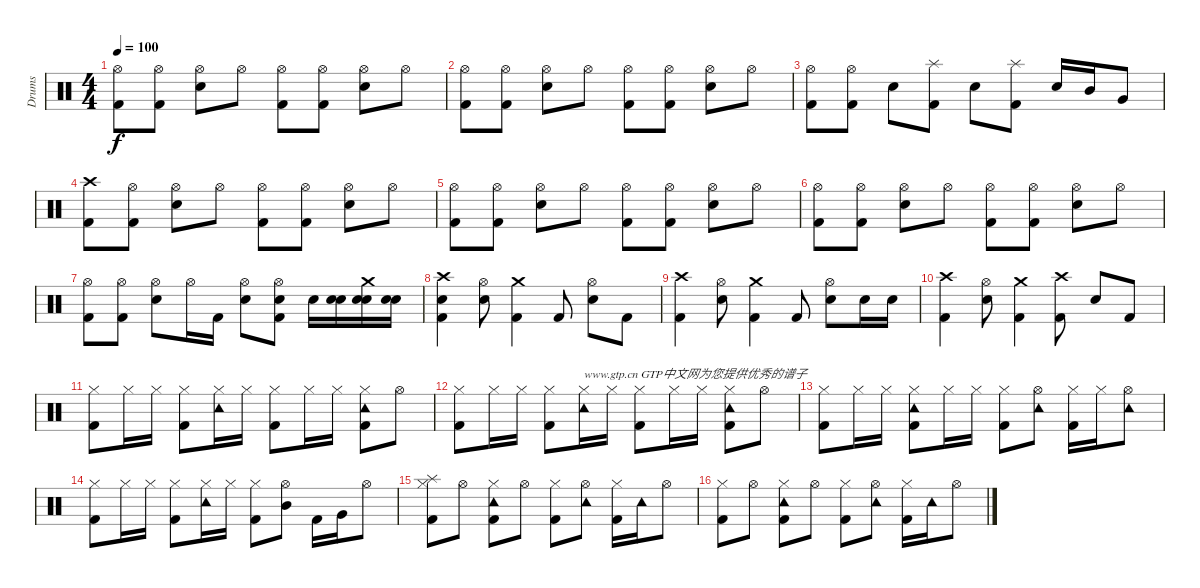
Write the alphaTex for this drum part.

\track ("Drums" "Drums") {instrument percussion}
\staff {score}
\articulation defaults
\ts (4 4)
\tempo 100
\clef neutral
\ks c
("Kick (hit) 2" "Hi-Hat (open)").8{dy f} ("Kick (hit) 2" "Hi-Hat (open)").8 ("Hi-Hat (open)" "Snare (hit) 2").8 "Hi-Hat (open)".8 ("Kick (hit) 2" "Hi-Hat (open)").8 ("Kick (hit) 2" "Hi-Hat (open)").8 ("Hi-Hat (open)" "Snare (hit) 2").8 "Hi-Hat (open)".8 |
("Kick (hit) 2" "Hi-Hat (open)").8 ("Kick (hit) 2" "Hi-Hat (open)").8 ("Hi-Hat (open)" "Snare (hit) 2").8 "Hi-Hat (open)".8 ("Kick (hit) 2" "Hi-Hat (open)").8 ("Kick (hit) 2" "Hi-Hat (open)").8 ("Hi-Hat (open)" "Snare (hit) 2").8 "Hi-Hat (open)".8 |
("Kick (hit) 2" "Hi-Hat (open)").8 ("Kick (hit) 2" "Hi-Hat (open)").8 "Snare (hit) 2".8 ("Kick (hit) 2" "Splash (hit)").8 "Snare (hit) 2".8 ("Kick (hit) 2" "Splash (hit)").8 "Snare (hit) 2".16 "Mid Tom (hit)".16 "Very Low Tom (hit)".8 |
("Kick (hit) 2" "Crash high (hit)").8 ("Kick (hit) 2" "Hi-Hat (open)").8 ("Hi-Hat (open)" "Snare (hit) 2").8 "Hi-Hat (open)".8 ("Kick (hit) 2" "Hi-Hat (open)").8 ("Kick (hit) 2" "Hi-Hat (open)").8 ("Hi-Hat (open)" "Snare (hit) 2").8 "Hi-Hat (open)".8 |
("Kick (hit) 2" "Hi-Hat (open)").8 ("Kick (hit) 2" "Hi-Hat (open)").8 ("Hi-Hat (open)" "Snare (hit) 2").8 "Hi-Hat (open)".8 ("Kick (hit) 2" "Hi-Hat (open)").8 ("Kick (hit) 2" "Hi-Hat (open)").8 ("Hi-Hat (open)" "Snare (hit) 2").8 "Hi-Hat (open)".8 |
("Kick (hit) 2" "Hi-Hat (open)").8 ("Kick (hit) 2" "Hi-Hat (open)").8 ("Hi-Hat (open)" "Snare (hit) 2").8 "Hi-Hat (open)".8 ("Kick (hit) 2" "Hi-Hat (open)").8 ("Kick (hit) 2" "Hi-Hat (open)").8 ("Hi-Hat (open)" "Snare (hit) 2").8 "Hi-Hat (open)".8 |
("Kick (hit) 2" "Hi-Hat (open)").8 ("Kick (hit) 2" "Hi-Hat (open)").8 ("Hi-Hat (open)" "Snare (hit) 2").8 "Hi-Hat (open)".16 "Kick (hit) 2".16 ("Hi-Hat (open)" "Snare (hit) 2").8 ("Kick (hit) 2" "Hi-Hat (open)" "Snare (hit) 2").8 "Snare (hit) 2".16 ("Snare (hit)" "Snare (hit) 2").16 ("Snare (hit)" "Crash medium (hit)" "Snare (hit) 2").16 ("Snare (hit)" "Snare (hit) 2").16 |
("Snare (hit)" "Kick (hit) 2" "Crash high (hit)").4 ("Hi-Hat (open)" "Snare (hit) 2").8 ("Kick (hit) 2" "Crash medium (hit)").4 "Kick (hit) 2".8 ("Hi-Hat (open)" "Snare (hit) 2").8 "Kick (hit) 2".8 |
("Kick (hit) 2" "Crash high (hit)").4 ("Hi-Hat (open)" "Snare (hit) 2").8 ("Kick (hit) 2" "Crash medium (hit)").4 "Kick (hit) 2".8 ("Hi-Hat (open)" "Snare (hit) 2").8 "Snare (hit) 2".16 "Snare (hit) 2".16 |
("Kick (hit) 2" "Crash high (hit)").4 ("Hi-Hat (open)" "Snare (hit) 2").8 ("Kick (hit) 2" "Crash medium (hit)").4 ("Kick (hit) 2" "Crash high (hit)").8 "Snare (hit) 2".8 "Kick (hit) 2".8 |
("Kick (hit) 2" "Hi-Hat (closed)").8 "Hi-Hat (closed)".16 "Hi-Hat (closed)".16 ("Kick (hit) 2" "Hi-Hat (closed)").8 ("Hi-Hat (closed)" "Tambourine (hit)").16 "Hi-Hat (closed)".16 ("Kick (hit) 2" "Hi-Hat (closed)").8 "Hi-Hat (closed)".16 "Hi-Hat (closed)".16 ("Kick (hit) 2" "Hi-Hat (closed)" "Tambourine (hit)").8 "Hi-Hat (open)".8 |
("Kick (hit) 2" "Hi-Hat (closed)").8 "Hi-Hat (closed)".16 "Hi-Hat (closed)".16 ("Kick (hit) 2" "Hi-Hat (closed)").8 ("Hi-Hat (closed)" "Tambourine (hit)").16{txt "www.gtp.cn GTP中文网为您提供优秀的谱子"} "Hi-Hat (closed)".16 ("Kick (hit) 2" "Hi-Hat (closed)").8 "Hi-Hat (closed)".16 "Hi-Hat (closed)".16 ("Kick (hit) 2" "Hi-Hat (closed)" "Tambourine (hit)").8 "Hi-Hat (open)".8 |
("Kick (hit) 2" "Hi-Hat (closed)").8 "Hi-Hat (closed)".16 "Hi-Hat (closed)".16 ("Kick (hit) 2" "Hi-Hat (closed)" "Tambourine (hit)").8 "Hi-Hat (closed)".16 "Hi-Hat (closed)".16 ("Kick (hit) 2" "Hi-Hat (closed)").8 ("Hi-Hat (open)" "Tambourine (hit)").8 ("Kick (hit) 2" "Hi-Hat (closed)").16 "Hi-Hat (closed)".16 ("Hi-Hat (open)" "Tambourine (hit)").8 |
("Kick (hit) 2" "Hi-Hat (closed)").8 "Hi-Hat (closed)".16 "Hi-Hat (closed)".16 ("Kick (hit) 2" "Hi-Hat (closed)").8 ("Hi-Hat (closed)" "Tambourine (hit)").16 "Hi-Hat (closed)".16 ("Kick (hit) 2" "Hi-Hat (closed)").8 ("Hi-Hat (open)" "Mid Tom (hit)").8 "Kick (hit) 2".16 "Very Low Tom (hit)".16 "Hi-Hat (open)".8 |
("Kick (hit) 2" "Hi-Hat (closed)" "Splash (hit)").8 "Hi-Hat (open)".8 ("Kick (hit) 2" "Hi-Hat (closed)" "Tambourine (hit)").8 "Hi-Hat (open)".8 ("Kick (hit) 2" "Hi-Hat (closed)").8 ("Hi-Hat (open)" "Tambourine (hit)").8 ("Kick (hit) 2" "Hi-Hat (closed)").16 "Tambourine (hit)".16 "Hi-Hat (open)".8 |
("Kick (hit) 2" "Hi-Hat (closed)").8 "Hi-Hat (open)".8 ("Kick (hit) 2" "Hi-Hat (closed)" "Tambourine (hit)").8 "Hi-Hat (open)".8 ("Kick (hit) 2" "Hi-Hat (closed)").8 ("Hi-Hat (open)" "Tambourine (hit)").8 ("Kick (hit) 2" "Hi-Hat (closed)").16 "Tambourine (hit)".16 "Hi-Hat (open)".8
